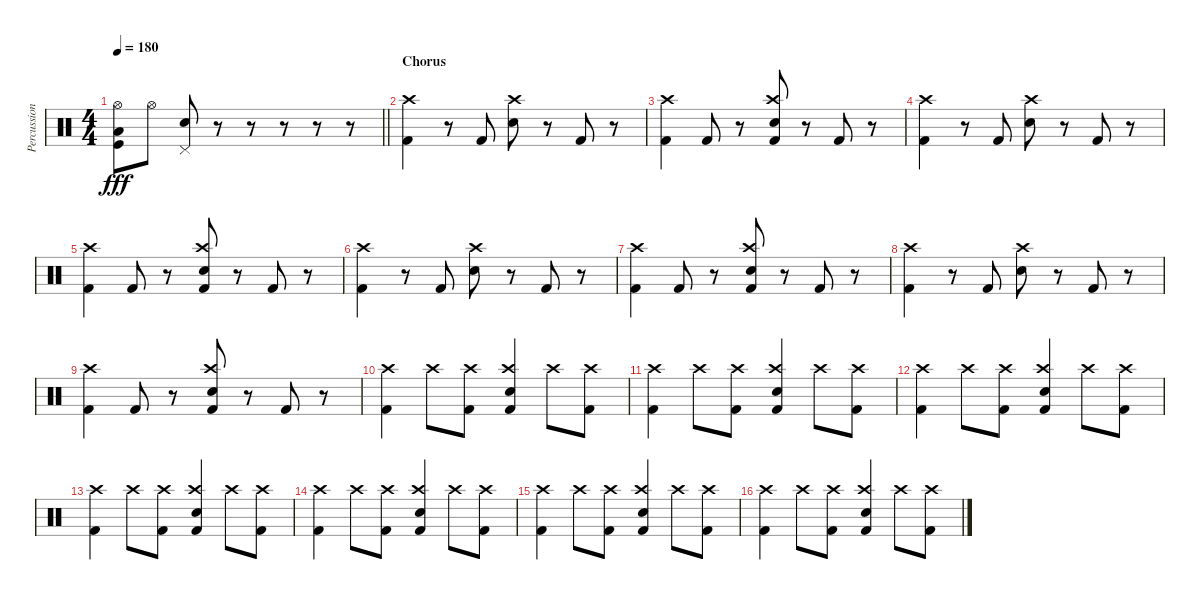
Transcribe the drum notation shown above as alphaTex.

\track ("Percussion" "Percussion") {instrument percussion}
\staff {score}
\articulation defaults
\ts (4 4)
\tempo 180
\clef neutral
\barLineRight lightlight
\ks c
("Hi-Hat (open)" "Low Floor Tom (hit)" "Kick (hit)").8{dy fff} "Hi-Hat (open)".8 ("Pedal Hi-Hat (hit)" "Electric Snare (hit)").8 r.8 r.8 r.8 r.8 r.8 |
\section ("" "Chorus")
("Crash high (hit)" "Kick (hit) 2").4 r.8 "Kick (hit) 2".8 ("Crash high (hit)" "Electric Snare (hit)").8 r.8 "Kick (hit) 2".8 r.8 |
("Crash high (hit)" "Kick (hit) 2").4 "Kick (hit) 2".8 r.8 ("Crash high (hit)" "Electric Snare (hit)" "Kick (hit) 2").8 r.8 "Kick (hit) 2".8 r.8 |
("Crash high (hit)" "Kick (hit) 2").4 r.8 "Kick (hit) 2".8 ("Crash high (hit)" "Electric Snare (hit)").8 r.8 "Kick (hit) 2".8 r.8 |
("Crash high (hit)" "Kick (hit) 2").4 "Kick (hit) 2".8 r.8 ("Crash high (hit)" "Electric Snare (hit)" "Kick (hit) 2").8 r.8 "Kick (hit) 2".8 r.8 |
("Crash high (hit)" "Kick (hit) 2").4 r.8 "Kick (hit) 2".8 ("Crash high (hit)" "Electric Snare (hit)").8 r.8 "Kick (hit) 2".8 r.8 |
("Crash high (hit)" "Kick (hit) 2").4 "Kick (hit) 2".8 r.8 ("Crash high (hit)" "Electric Snare (hit)" "Kick (hit) 2").8 r.8 "Kick (hit) 2".8 r.8 |
("Crash high (hit)" "Kick (hit) 2").4 r.8 "Kick (hit) 2".8 ("Crash high (hit)" "Electric Snare (hit)").8 r.8 "Kick (hit) 2".8 r.8 |
("Crash high (hit)" "Kick (hit) 2").4 "Kick (hit) 2".8 r.8 ("Crash high (hit)" "Electric Snare (hit)" "Kick (hit) 2").8 r.8 "Kick (hit) 2".8 r.8 |
("Crash high (hit)" "Kick (hit) 2").4 "Crash high (hit)".8 ("Crash high (hit)" "Kick (hit) 2").8 ("Crash high (hit)" "Electric Snare (hit)" "Kick (hit) 2").4 "Crash high (hit)".8 ("Crash high (hit)" "Kick (hit) 2").8 |
("Crash high (hit)" "Kick (hit) 2").4 "Crash high (hit)".8 ("Crash high (hit)" "Kick (hit) 2").8 ("Crash high (hit)" "Electric Snare (hit)" "Kick (hit) 2").4 "Crash high (hit)".8 ("Crash high (hit)" "Kick (hit) 2").8 |
("Crash high (hit)" "Kick (hit) 2").4 "Crash high (hit)".8 ("Crash high (hit)" "Kick (hit) 2").8 ("Crash high (hit)" "Electric Snare (hit)" "Kick (hit) 2").4 "Crash high (hit)".8 ("Crash high (hit)" "Kick (hit) 2").8 |
("Crash high (hit)" "Kick (hit) 2").4 "Crash high (hit)".8 ("Crash high (hit)" "Kick (hit) 2").8 ("Crash high (hit)" "Electric Snare (hit)" "Kick (hit) 2").4 "Crash high (hit)".8 ("Crash high (hit)" "Kick (hit) 2").8 |
("Crash high (hit)" "Kick (hit) 2").4 "Crash high (hit)".8 ("Crash high (hit)" "Kick (hit) 2").8 ("Crash high (hit)" "Electric Snare (hit)" "Kick (hit) 2").4 "Crash high (hit)".8 ("Crash high (hit)" "Kick (hit) 2").8 |
("Crash high (hit)" "Kick (hit) 2").4 "Crash high (hit)".8 ("Crash high (hit)" "Kick (hit) 2").8 ("Crash high (hit)" "Electric Snare (hit)" "Kick (hit) 2").4 "Crash high (hit)".8 ("Crash high (hit)" "Kick (hit) 2").8 |
("Crash high (hit)" "Kick (hit) 2").4 "Crash high (hit)".8 ("Crash high (hit)" "Kick (hit) 2").8 ("Crash high (hit)" "Electric Snare (hit)" "Kick (hit) 2").4 "Crash high (hit)".8 ("Crash high (hit)" "Kick (hit) 2").8
